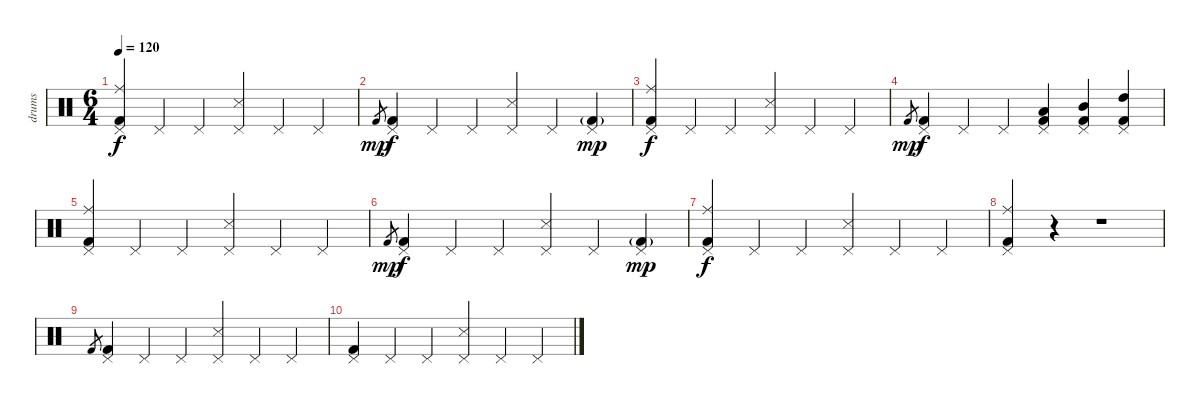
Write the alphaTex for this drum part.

\track ("drums" "drums") {instrument percussion}
\staff {score}
\articulation defaults
\ts (6 4)
\tempo 120
\clef neutral
\ks c
("Pedal Hi-Hat (hit)" "Ride (middle)" "Kick (hit) 2").4{dy f volume 6} "Pedal Hi-Hat (hit)".4 "Pedal Hi-Hat (hit)".4 ("Pedal Hi-Hat (hit)" "Snare (side stick) 3").4 "Pedal Hi-Hat (hit)".4 "Pedal Hi-Hat (hit)".4 |
"Kick (hit) 2".8{gr dy mp} ("Pedal Hi-Hat (hit)" "Kick (hit) 2").4{dy f} "Pedal Hi-Hat (hit)".4 "Pedal Hi-Hat (hit)".4 ("Pedal Hi-Hat (hit)" "Snare (side stick) 3").4 "Pedal Hi-Hat (hit)".4 ("Pedal Hi-Hat (hit)" "Kick (hit) 2"{g}).4{dy mp} |
("Pedal Hi-Hat (hit)" "Ride (middle)" "Kick (hit) 2").4{dy f} "Pedal Hi-Hat (hit)".4 "Pedal Hi-Hat (hit)".4 ("Pedal Hi-Hat (hit)" "Snare (side stick) 3").4 "Pedal Hi-Hat (hit)".4 "Pedal Hi-Hat (hit)".4 |
"Kick (hit) 2".8{gr dy mp} ("Pedal Hi-Hat (hit)" "Kick (hit) 2").4{dy f} "Pedal Hi-Hat (hit)".4 "Pedal Hi-Hat (hit)".4 ("Pedal Hi-Hat (hit)" "Low Tom (hit)" "Kick (hit) 2").4 ("Pedal Hi-Hat (hit)" "Mid Tom (hit)" "Kick (hit) 2").4 ("Pedal Hi-Hat (hit)" "High Tom (hit)" "Kick (hit) 2").4 |
("Pedal Hi-Hat (hit)" "Ride (middle)" "Kick (hit) 2").4 "Pedal Hi-Hat (hit)".4 "Pedal Hi-Hat (hit)".4 ("Pedal Hi-Hat (hit)" "Snare (side stick) 3").4 "Pedal Hi-Hat (hit)".4 "Pedal Hi-Hat (hit)".4 |
"Kick (hit) 2".8{gr dy mp} ("Pedal Hi-Hat (hit)" "Kick (hit) 2").4{dy f} "Pedal Hi-Hat (hit)".4 "Pedal Hi-Hat (hit)".4 ("Pedal Hi-Hat (hit)" "Snare (side stick) 3").4 "Pedal Hi-Hat (hit)".4 ("Pedal Hi-Hat (hit)" "Kick (hit) 2"{g}).4{dy mp} |
("Pedal Hi-Hat (hit)" "Ride (middle)" "Kick (hit) 2").4{dy f} "Pedal Hi-Hat (hit)".4 "Pedal Hi-Hat (hit)".4 ("Pedal Hi-Hat (hit)" "Snare (side stick) 3").4 "Pedal Hi-Hat (hit)".4 "Pedal Hi-Hat (hit)".4 |
("Pedal Hi-Hat (hit)" "Ride (middle)" "Kick (hit) 2").4 r.4 r.1 |
"Kick (hit) 2".8{gr} ("Pedal Hi-Hat (hit)" "Kick (hit) 2").4{volume 13} "Pedal Hi-Hat (hit)".4 "Pedal Hi-Hat (hit)".4 ("Pedal Hi-Hat (hit)" "Snare (side stick) 3").4 "Pedal Hi-Hat (hit)".4 "Pedal Hi-Hat (hit)".4 |
("Pedal Hi-Hat (hit)" "Kick (hit) 2").4 "Pedal Hi-Hat (hit)".4 "Pedal Hi-Hat (hit)".4 ("Pedal Hi-Hat (hit)" "Snare (side stick) 3").4 "Pedal Hi-Hat (hit)".4 "Pedal Hi-Hat (hit)".4
